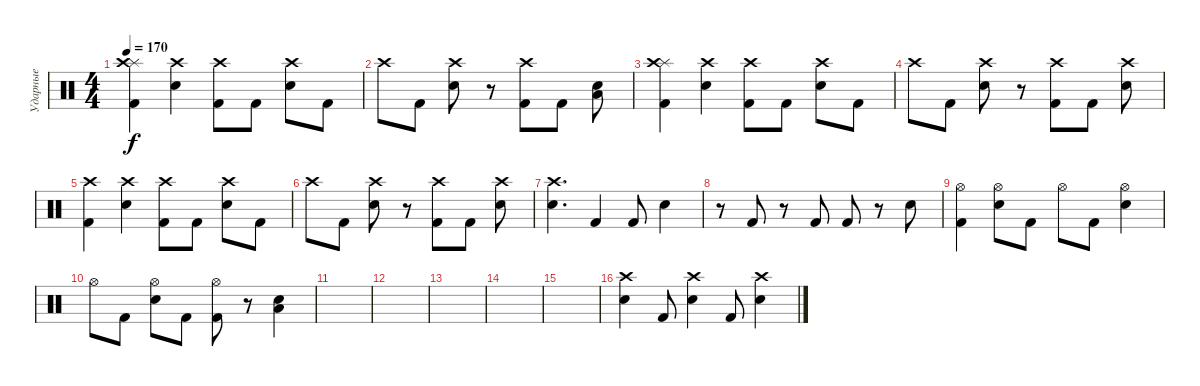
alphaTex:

\track ("Ударные" "Ударные") {instrument percussion}
\staff {score}
\articulation defaults
\ts (4 4)
\tempo 170
\clef neutral
\ks c
("Splash (hit)" "Crash high (hit)" "Kick (hit) 2").4{dy f} ("Crash high (hit)" "Snare (hit) 2").4 ("Crash high (hit)" "Kick (hit) 2").8 "Kick (hit) 2".8 ("Crash high (hit)" "Snare (hit) 2").8 "Kick (hit) 2".8 |
"Crash high (hit)".8 "Kick (hit) 2".8 ("Crash high (hit)" "Snare (hit) 2").8 r.8 ("Crash high (hit)" "Kick (hit) 2").8 "Kick (hit) 2".8 ("Low Tom (hit)" "Snare (hit) 2").8 |
("Splash (hit)" "Crash high (hit)" "Kick (hit) 2").4 ("Crash high (hit)" "Snare (hit) 2").4 ("Crash high (hit)" "Kick (hit) 2").8 "Kick (hit) 2".8 ("Crash high (hit)" "Snare (hit) 2").8 "Kick (hit) 2".8 |
"Crash high (hit)".8 "Kick (hit) 2".8 ("Crash high (hit)" "Snare (hit) 2").8 r.8 ("Crash high (hit)" "Kick (hit) 2").8 "Kick (hit) 2".8 ("Crash high (hit)" "Snare (hit) 2").8 |
("Crash high (hit)" "Kick (hit) 2").4 ("Crash high (hit)" "Snare (hit) 2").4 ("Crash high (hit)" "Kick (hit) 2").8 "Kick (hit) 2".8 ("Crash high (hit)" "Snare (hit) 2").8 "Kick (hit) 2".8 |
"Crash high (hit)".8 "Kick (hit) 2".8 ("Crash high (hit)" "Snare (hit) 2").8 r.8 ("Crash high (hit)" "Kick (hit) 2").8 "Kick (hit) 2".8 ("Crash high (hit)" "Snare (hit) 2").8 |
("Crash high (hit)" "Snare (hit) 2").4{d} "Kick (hit) 2".4 "Kick (hit) 2".8 "Snare (hit) 2".4 |
r.8 "Kick (hit) 2".8 r.8 "Kick (hit) 2".8 "Kick (hit) 2".8 r.8 "Snare (hit) 2".8 |
("Hi-Hat (open)" "Kick (hit) 2").4 ("Hi-Hat (open)" "Snare (hit) 2").8 "Kick (hit) 2".8 "Hi-Hat (open)".8 "Kick (hit) 2".8 ("Hi-Hat (open)" "Snare (hit) 2").4 |
"Hi-Hat (open)".8 "Kick (hit) 2".8 ("Hi-Hat (open)" "Snare (hit) 2").8 "Kick (hit) 2".8 ("Hi-Hat (open)" "Kick (hit) 2").8 r.8 ("Low Tom (hit)" "Snare (hit) 2").4 |
|
|
|
|
|
("Crash high (hit)" "Snare (hit) 2").4 "Kick (hit) 2".8 ("Crash high (hit)" "Snare (hit) 2").4 "Kick (hit) 2".8 ("Crash high (hit)" "Snare (hit) 2").4
